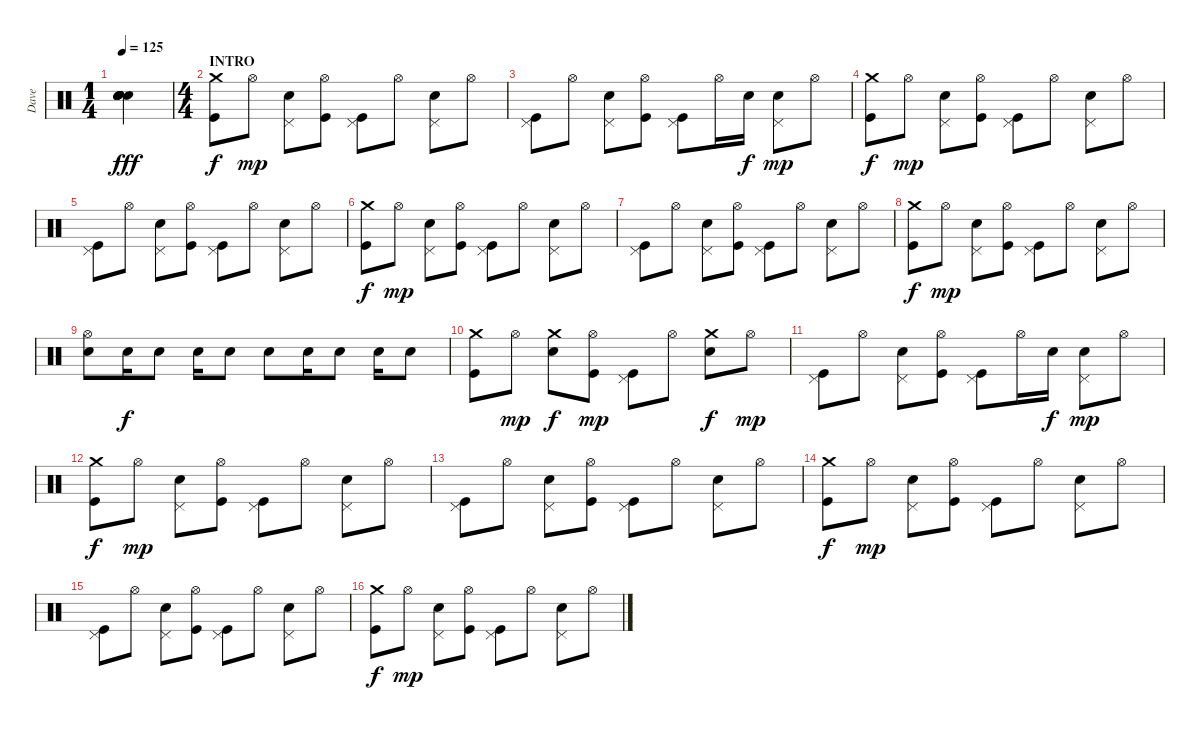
\track ("Dave" "Dave") {instrument percussion}
\staff {score}
\articulation defaults
\ts (1 4)
\tempo 125
\clef neutral
\ks c
("Snare (hit) 2" "Snare (hit) 2" "Snare (hit) 2" "Snare (hit) 2" "Snare (hit) 2" "Snare (hit) 2").4{dy fff} |
\ts (4 4)
\section ("" "INTRO")
("Crash medium (hit)" "Kick (hit)").8{dy f} "Hi-Hat (open)".8{dy mp} ("Pedal Hi-Hat (hit)" "Snare (hit) 2").8 ("Hi-Hat (open)" "Kick (hit)").8 ("Pedal Hi-Hat (hit)" "Kick (hit)").8 "Hi-Hat (open)".8 ("Pedal Hi-Hat (hit)" "Snare (hit) 2").8 "Hi-Hat (open)".8 |
("Pedal Hi-Hat (hit)" "Kick (hit)").8 "Hi-Hat (open)".8 ("Pedal Hi-Hat (hit)" "Snare (hit) 2").8 ("Hi-Hat (open)" "Kick (hit)").8 ("Pedal Hi-Hat (hit)" "Kick (hit)").8 "Hi-Hat (open)".16 "Snare (hit) 2".16{dy f} ("Pedal Hi-Hat (hit)" "Snare (hit) 2").8{dy mp} "Hi-Hat (open)".8 |
("Crash medium (hit)" "Kick (hit)").8{dy f} "Hi-Hat (open)".8{dy mp} ("Pedal Hi-Hat (hit)" "Snare (hit) 2").8 ("Hi-Hat (open)" "Kick (hit)").8 ("Pedal Hi-Hat (hit)" "Kick (hit)").8 "Hi-Hat (open)".8 ("Pedal Hi-Hat (hit)" "Snare (hit) 2").8 "Hi-Hat (open)".8 |
("Pedal Hi-Hat (hit)" "Kick (hit)").8 "Hi-Hat (open)".8 ("Pedal Hi-Hat (hit)" "Snare (hit) 2").8 ("Hi-Hat (open)" "Kick (hit)").8 ("Pedal Hi-Hat (hit)" "Kick (hit)").8 "Hi-Hat (open)".8 ("Pedal Hi-Hat (hit)" "Snare (hit) 2").8 "Hi-Hat (open)".8 |
("Crash medium (hit)" "Kick (hit)").8{dy f} "Hi-Hat (open)".8{dy mp} ("Pedal Hi-Hat (hit)" "Snare (hit) 2").8 ("Hi-Hat (open)" "Kick (hit)").8 ("Pedal Hi-Hat (hit)" "Kick (hit)").8 "Hi-Hat (open)".8 ("Pedal Hi-Hat (hit)" "Snare (hit) 2").8 "Hi-Hat (open)".8 |
("Pedal Hi-Hat (hit)" "Kick (hit)").8 "Hi-Hat (open)".8 ("Pedal Hi-Hat (hit)" "Snare (hit) 2").8 ("Hi-Hat (open)" "Kick (hit)").8 ("Pedal Hi-Hat (hit)" "Kick (hit)").8 "Hi-Hat (open)".8 ("Pedal Hi-Hat (hit)" "Snare (hit) 2").8 "Hi-Hat (open)".8 |
("Crash medium (hit)" "Kick (hit)").8{dy f} "Hi-Hat (open)".8{dy mp} ("Pedal Hi-Hat (hit)" "Snare (hit) 2").8 ("Hi-Hat (open)" "Kick (hit)").8 ("Pedal Hi-Hat (hit)" "Kick (hit)").8 "Hi-Hat (open)".8 ("Pedal Hi-Hat (hit)" "Snare (hit) 2").8 "Hi-Hat (open)".8 |
("Hi-Hat (open)" "Snare (hit) 2").8 "Snare (hit) 2".16{dy f} "Snare (hit) 2".8 "Snare (hit) 2".16 "Snare (hit) 2".8 "Snare (hit) 2".8 "Snare (hit) 2".16 "Snare (hit) 2".8 "Snare (hit) 2".16 "Snare (hit) 2".8 |
("Crash medium (hit)" "Kick (hit)").8 "Hi-Hat (open)".8{dy mp} ("Crash medium (hit)" "Snare (hit) 2").8{dy f} ("Hi-Hat (open)" "Kick (hit)").8{dy mp} ("Pedal Hi-Hat (hit)" "Kick (hit)").8 "Hi-Hat (open)".8 ("Crash medium (hit)" "Snare (hit) 2").8{dy f} "Hi-Hat (open)".8{dy mp} |
("Pedal Hi-Hat (hit)" "Kick (hit)").8 "Hi-Hat (open)".8 ("Pedal Hi-Hat (hit)" "Snare (hit) 2").8 ("Hi-Hat (open)" "Kick (hit)").8 ("Pedal Hi-Hat (hit)" "Kick (hit)").8 "Hi-Hat (open)".16 "Snare (hit) 2".16{dy f} ("Pedal Hi-Hat (hit)" "Snare (hit) 2").8{dy mp} "Hi-Hat (open)".8 |
("Crash medium (hit)" "Kick (hit)").8{dy f} "Hi-Hat (open)".8{dy mp} ("Pedal Hi-Hat (hit)" "Snare (hit) 2").8 ("Hi-Hat (open)" "Kick (hit)").8 ("Pedal Hi-Hat (hit)" "Kick (hit)").8 "Hi-Hat (open)".8 ("Pedal Hi-Hat (hit)" "Snare (hit) 2").8 "Hi-Hat (open)".8 |
("Pedal Hi-Hat (hit)" "Kick (hit)").8 "Hi-Hat (open)".8 ("Pedal Hi-Hat (hit)" "Snare (hit) 2").8 ("Hi-Hat (open)" "Kick (hit)").8 ("Pedal Hi-Hat (hit)" "Kick (hit)").8 "Hi-Hat (open)".8 ("Pedal Hi-Hat (hit)" "Snare (hit) 2").8 "Hi-Hat (open)".8 |
("Crash medium (hit)" "Kick (hit)").8{dy f} "Hi-Hat (open)".8{dy mp} ("Pedal Hi-Hat (hit)" "Snare (hit) 2").8 ("Hi-Hat (open)" "Kick (hit)").8 ("Pedal Hi-Hat (hit)" "Kick (hit)").8 "Hi-Hat (open)".8 ("Pedal Hi-Hat (hit)" "Snare (hit) 2").8 "Hi-Hat (open)".8 |
("Pedal Hi-Hat (hit)" "Kick (hit)").8 "Hi-Hat (open)".8 ("Pedal Hi-Hat (hit)" "Snare (hit) 2").8 ("Hi-Hat (open)" "Kick (hit)").8 ("Pedal Hi-Hat (hit)" "Kick (hit)").8 "Hi-Hat (open)".8 ("Pedal Hi-Hat (hit)" "Snare (hit) 2").8 "Hi-Hat (open)".8 |
("Crash medium (hit)" "Kick (hit)").8{dy f} "Hi-Hat (open)".8{dy mp} ("Pedal Hi-Hat (hit)" "Snare (hit) 2").8 ("Hi-Hat (open)" "Kick (hit)").8 ("Pedal Hi-Hat (hit)" "Kick (hit)").8 "Hi-Hat (open)".8 ("Pedal Hi-Hat (hit)" "Snare (hit) 2").8 "Hi-Hat (open)".8
